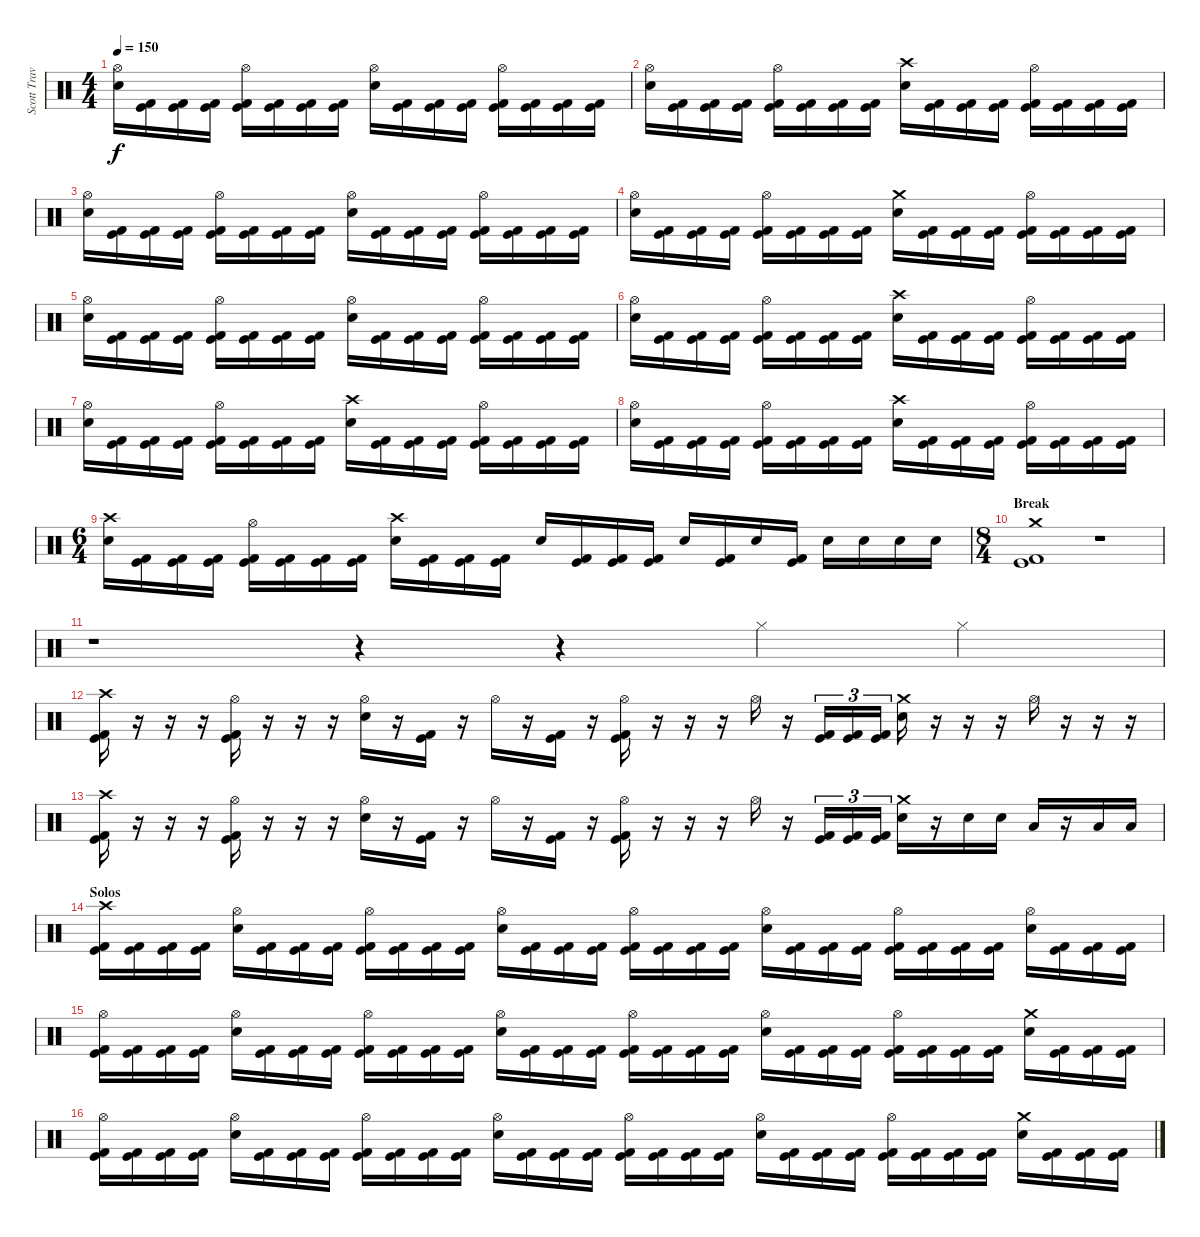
\track ("Scott Travis" "Scott Trav") {instrument percussion}
\staff {score}
\articulation defaults
\ts (4 4)
\tempo 150
\clef neutral
\ks c
("Hi-Hat (open)" "Electric Snare (hit)").16{dy f} ("Kick (hit)" "Kick (hit) 2").16 ("Kick (hit)" "Kick (hit) 2").16 ("Kick (hit)" "Kick (hit) 2").16 ("Hi-Hat (open)" "Kick (hit)" "Kick (hit) 2").16 ("Kick (hit)" "Kick (hit) 2").16 ("Kick (hit)" "Kick (hit) 2").16 ("Kick (hit)" "Kick (hit) 2").16 ("Hi-Hat (open)" "Electric Snare (hit)").16 ("Kick (hit)" "Kick (hit) 2").16 ("Kick (hit)" "Kick (hit) 2").16 ("Kick (hit)" "Kick (hit) 2").16 ("Hi-Hat (open)" "Kick (hit)" "Kick (hit) 2").16 ("Kick (hit)" "Kick (hit) 2").16 ("Kick (hit)" "Kick (hit) 2").16 ("Kick (hit)" "Kick (hit) 2").16 |
("Hi-Hat (open)" "Electric Snare (hit)").16 ("Kick (hit)" "Kick (hit) 2").16 ("Kick (hit)" "Kick (hit) 2").16 ("Kick (hit)" "Kick (hit) 2").16 ("Hi-Hat (open)" "Kick (hit)" "Kick (hit) 2").16 ("Kick (hit)" "Kick (hit) 2").16 ("Kick (hit)" "Kick (hit) 2").16 ("Kick (hit)" "Kick (hit) 2").16 ("Crash high (hit)" "Electric Snare (hit)").16 ("Kick (hit)" "Kick (hit) 2").16 ("Kick (hit)" "Kick (hit) 2").16 ("Kick (hit)" "Kick (hit) 2").16 ("Hi-Hat (open)" "Kick (hit)" "Kick (hit) 2").16 ("Kick (hit)" "Kick (hit) 2").16 ("Kick (hit)" "Kick (hit) 2").16 ("Kick (hit)" "Kick (hit) 2").16 |
("Hi-Hat (open)" "Electric Snare (hit)").16 ("Kick (hit)" "Kick (hit) 2").16 ("Kick (hit)" "Kick (hit) 2").16 ("Kick (hit)" "Kick (hit) 2").16 ("Hi-Hat (open)" "Kick (hit)" "Kick (hit) 2").16 ("Kick (hit)" "Kick (hit) 2").16 ("Kick (hit)" "Kick (hit) 2").16 ("Kick (hit)" "Kick (hit) 2").16 ("Hi-Hat (open)" "Electric Snare (hit)").16 ("Kick (hit)" "Kick (hit) 2").16 ("Kick (hit)" "Kick (hit) 2").16 ("Kick (hit)" "Kick (hit) 2").16 ("Hi-Hat (open)" "Kick (hit)" "Kick (hit) 2").16 ("Kick (hit)" "Kick (hit) 2").16 ("Kick (hit)" "Kick (hit) 2").16 ("Kick (hit)" "Kick (hit) 2").16 |
("Hi-Hat (open)" "Electric Snare (hit)").16 ("Kick (hit)" "Kick (hit) 2").16 ("Kick (hit)" "Kick (hit) 2").16 ("Kick (hit)" "Kick (hit) 2").16 ("Hi-Hat (open)" "Kick (hit)" "Kick (hit) 2").16 ("Kick (hit)" "Kick (hit) 2").16 ("Kick (hit)" "Kick (hit) 2").16 ("Kick (hit)" "Kick (hit) 2").16 ("Crash medium (hit)" "Electric Snare (hit)").16 ("Kick (hit)" "Kick (hit) 2").16 ("Kick (hit)" "Kick (hit) 2").16 ("Kick (hit)" "Kick (hit) 2").16 ("Hi-Hat (open)" "Kick (hit)" "Kick (hit) 2").16 ("Kick (hit)" "Kick (hit) 2").16 ("Kick (hit)" "Kick (hit) 2").16 ("Kick (hit)" "Kick (hit) 2").16 |
("Hi-Hat (open)" "Electric Snare (hit)").16 ("Kick (hit)" "Kick (hit) 2").16 ("Kick (hit)" "Kick (hit) 2").16 ("Kick (hit)" "Kick (hit) 2").16 ("Hi-Hat (open)" "Kick (hit)" "Kick (hit) 2").16 ("Kick (hit)" "Kick (hit) 2").16 ("Kick (hit)" "Kick (hit) 2").16 ("Kick (hit)" "Kick (hit) 2").16 ("Hi-Hat (open)" "Electric Snare (hit)").16 ("Kick (hit)" "Kick (hit) 2").16 ("Kick (hit)" "Kick (hit) 2").16 ("Kick (hit)" "Kick (hit) 2").16 ("Hi-Hat (open)" "Kick (hit)" "Kick (hit) 2").16 ("Kick (hit)" "Kick (hit) 2").16 ("Kick (hit)" "Kick (hit) 2").16 ("Kick (hit)" "Kick (hit) 2").16 |
("Hi-Hat (open)" "Electric Snare (hit)").16 ("Kick (hit)" "Kick (hit) 2").16 ("Kick (hit)" "Kick (hit) 2").16 ("Kick (hit)" "Kick (hit) 2").16 ("Hi-Hat (open)" "Kick (hit)" "Kick (hit) 2").16 ("Kick (hit)" "Kick (hit) 2").16 ("Kick (hit)" "Kick (hit) 2").16 ("Kick (hit)" "Kick (hit) 2").16 ("Crash high (hit)" "Electric Snare (hit)").16 ("Kick (hit)" "Kick (hit) 2").16 ("Kick (hit)" "Kick (hit) 2").16 ("Kick (hit)" "Kick (hit) 2").16 ("Hi-Hat (open)" "Kick (hit)" "Kick (hit) 2").16 ("Kick (hit)" "Kick (hit) 2").16 ("Kick (hit)" "Kick (hit) 2").16 ("Kick (hit)" "Kick (hit) 2").16 |
("Hi-Hat (open)" "Electric Snare (hit)").16 ("Kick (hit)" "Kick (hit) 2").16 ("Kick (hit)" "Kick (hit) 2").16 ("Kick (hit)" "Kick (hit) 2").16 ("Hi-Hat (open)" "Kick (hit)" "Kick (hit) 2").16 ("Kick (hit)" "Kick (hit) 2").16 ("Kick (hit)" "Kick (hit) 2").16 ("Kick (hit)" "Kick (hit) 2").16 ("Crash high (hit)" "Electric Snare (hit)").16 ("Kick (hit)" "Kick (hit) 2").16 ("Kick (hit)" "Kick (hit) 2").16 ("Kick (hit)" "Kick (hit) 2").16 ("Hi-Hat (open)" "Kick (hit)" "Kick (hit) 2").16 ("Kick (hit)" "Kick (hit) 2").16 ("Kick (hit)" "Kick (hit) 2").16 ("Kick (hit)" "Kick (hit) 2").16 |
("Hi-Hat (open)" "Electric Snare (hit)").16 ("Kick (hit)" "Kick (hit) 2").16 ("Kick (hit)" "Kick (hit) 2").16 ("Kick (hit)" "Kick (hit) 2").16 ("Hi-Hat (open)" "Kick (hit)" "Kick (hit) 2").16 ("Kick (hit)" "Kick (hit) 2").16 ("Kick (hit)" "Kick (hit) 2").16 ("Kick (hit)" "Kick (hit) 2").16 ("Crash high (hit)" "Electric Snare (hit)").16 ("Kick (hit)" "Kick (hit) 2").16 ("Kick (hit)" "Kick (hit) 2").16 ("Kick (hit)" "Kick (hit) 2").16 ("Hi-Hat (open)" "Kick (hit)" "Kick (hit) 2").16 ("Kick (hit)" "Kick (hit) 2").16 ("Kick (hit)" "Kick (hit) 2").16 ("Kick (hit)" "Kick (hit) 2").16 |
\ts (6 4)
("Crash high (hit)" "Electric Snare (hit)").16 ("Kick (hit)" "Kick (hit) 2").16 ("Kick (hit)" "Kick (hit) 2").16 ("Kick (hit)" "Kick (hit) 2").16 ("Hi-Hat (open)" "Kick (hit)" "Kick (hit) 2").16 ("Kick (hit)" "Kick (hit) 2").16 ("Kick (hit)" "Kick (hit) 2").16 ("Kick (hit)" "Kick (hit) 2").16 ("Crash high (hit)" "Electric Snare (hit)").16 ("Kick (hit)" "Kick (hit) 2").16 ("Kick (hit)" "Kick (hit) 2").16 ("Kick (hit)" "Kick (hit) 2").16 "Electric Snare (hit)".16 ("Kick (hit)" "Kick (hit) 2").16 ("Kick (hit)" "Kick (hit) 2").16 ("Kick (hit)" "Kick (hit) 2").16 "Electric Snare (hit)".16 ("Kick (hit)" "Kick (hit) 2").16 "Electric Snare (hit)".16 ("Kick (hit)" "Kick (hit) 2").16 "Electric Snare (hit)".16 "Electric Snare (hit)".16 "Electric Snare (hit)".16 "Electric Snare (hit)".16 |
\ts (8 4)
\section ("" "Break")
("Crash medium (hit)" "Kick (hit)" "Kick (hit) 2").1 r.1 |
r.1 r.4 r.4 "Hi-Hat (closed)".4 "Hi-Hat (closed)".4 |
("Crash high (hit)" "Kick (hit)" "Kick (hit) 2").16 r.16 r.16 r.16 ("Hi-Hat (open)" "Kick (hit)" "Kick (hit) 2").16 r.16 r.16 r.16 ("Hi-Hat (open)" "Electric Snare (hit)").16 r.16 ("Kick (hit)" "Kick (hit) 2").16 r.16 "Hi-Hat (open)".16 r.16 ("Kick (hit)" "Kick (hit) 2").16 r.16 ("Hi-Hat (open)" "Kick (hit)" "Kick (hit) 2").16 r.16 r.16 r.16 "Hi-Hat (open)".16 r.16 ("Kick (hit)" "Kick (hit) 2").16{tu (3 2)} ("Kick (hit)" "Kick (hit) 2").16{tu (3 2)} ("Kick (hit)" "Kick (hit) 2").16{tu (3 2)} ("Crash medium (hit)" "Electric Snare (hit)").16 r.16 r.16 r.16 "Hi-Hat (open)".16 r.16 r.16 r.16 |
("Crash high (hit)" "Kick (hit)" "Kick (hit) 2").16 r.16 r.16 r.16 ("Hi-Hat (open)" "Kick (hit)" "Kick (hit) 2").16 r.16 r.16 r.16 ("Hi-Hat (open)" "Electric Snare (hit)").16 r.16 ("Kick (hit)" "Kick (hit) 2").16 r.16 "Hi-Hat (open)".16 r.16 ("Kick (hit)" "Kick (hit) 2").16 r.16 ("Hi-Hat (open)" "Kick (hit)" "Kick (hit) 2").16 r.16 r.16 r.16 "Hi-Hat (open)".16 r.16 ("Kick (hit)" "Kick (hit) 2").16{tu (3 2)} ("Kick (hit)" "Kick (hit) 2").16{tu (3 2)} ("Kick (hit)" "Kick (hit) 2").16{tu (3 2)} ("Crash medium (hit)" "Electric Snare (hit)").16 r.16 "Electric Snare (hit)".16 "Electric Snare (hit)".16 "Low Tom (hit)".16 r.16 "Low Tom (hit)".16 "Low Tom (hit)".16 |
\section ("" "Solos")
("Crash high (hit)" "Kick (hit)" "Kick (hit) 2").16 ("Kick (hit)" "Kick (hit) 2").16 ("Kick (hit)" "Kick (hit) 2").16 ("Kick (hit)" "Kick (hit) 2").16 ("Hi-Hat (open)" "Electric Snare (hit)").16 ("Kick (hit)" "Kick (hit) 2").16 ("Kick (hit)" "Kick (hit) 2").16 ("Kick (hit)" "Kick (hit) 2").16 ("Hi-Hat (open)" "Kick (hit)" "Kick (hit) 2").16 ("Kick (hit)" "Kick (hit) 2").16 ("Kick (hit)" "Kick (hit) 2").16 ("Kick (hit)" "Kick (hit) 2").16 ("Hi-Hat (open)" "Electric Snare (hit)").16 ("Kick (hit)" "Kick (hit) 2").16 ("Kick (hit)" "Kick (hit) 2").16 ("Kick (hit)" "Kick (hit) 2").16 ("Hi-Hat (open)" "Kick (hit)" "Kick (hit) 2").16 ("Kick (hit)" "Kick (hit) 2").16 ("Kick (hit)" "Kick (hit) 2").16 ("Kick (hit)" "Kick (hit) 2").16 ("Hi-Hat (open)" "Electric Snare (hit)").16 ("Kick (hit)" "Kick (hit) 2").16 ("Kick (hit)" "Kick (hit) 2").16 ("Kick (hit)" "Kick (hit) 2").16 ("Hi-Hat (open)" "Kick (hit)" "Kick (hit) 2").16 ("Kick (hit)" "Kick (hit) 2").16 ("Kick (hit)" "Kick (hit) 2").16 ("Kick (hit)" "Kick (hit) 2").16 ("Hi-Hat (open)" "Electric Snare (hit)").16 ("Kick (hit)" "Kick (hit) 2").16 ("Kick (hit)" "Kick (hit) 2").16 ("Kick (hit)" "Kick (hit) 2").16 |
("Hi-Hat (open)" "Kick (hit)" "Kick (hit) 2").16 ("Kick (hit)" "Kick (hit) 2").16 ("Kick (hit)" "Kick (hit) 2").16 ("Kick (hit)" "Kick (hit) 2").16 ("Hi-Hat (open)" "Electric Snare (hit)").16 ("Kick (hit)" "Kick (hit) 2").16 ("Kick (hit)" "Kick (hit) 2").16 ("Kick (hit)" "Kick (hit) 2").16 ("Hi-Hat (open)" "Kick (hit)" "Kick (hit) 2").16 ("Kick (hit)" "Kick (hit) 2").16 ("Kick (hit)" "Kick (hit) 2").16 ("Kick (hit)" "Kick (hit) 2").16 ("Hi-Hat (open)" "Electric Snare (hit)").16 ("Kick (hit)" "Kick (hit) 2").16 ("Kick (hit)" "Kick (hit) 2").16 ("Kick (hit)" "Kick (hit) 2").16 ("Hi-Hat (open)" "Kick (hit)" "Kick (hit) 2").16 ("Kick (hit)" "Kick (hit) 2").16 ("Kick (hit)" "Kick (hit) 2").16 ("Kick (hit)" "Kick (hit) 2").16 ("Hi-Hat (open)" "Electric Snare (hit)").16 ("Kick (hit)" "Kick (hit) 2").16 ("Kick (hit)" "Kick (hit) 2").16 ("Kick (hit)" "Kick (hit) 2").16 ("Hi-Hat (open)" "Kick (hit)" "Kick (hit) 2").16 ("Kick (hit)" "Kick (hit) 2").16 ("Kick (hit)" "Kick (hit) 2").16 ("Kick (hit)" "Kick (hit) 2").16 ("Crash medium (hit)" "Electric Snare (hit)").16 ("Kick (hit)" "Kick (hit) 2").16 ("Kick (hit)" "Kick (hit) 2").16 ("Kick (hit)" "Kick (hit) 2").16 |
("Hi-Hat (open)" "Kick (hit)" "Kick (hit) 2").16 ("Kick (hit)" "Kick (hit) 2").16 ("Kick (hit)" "Kick (hit) 2").16 ("Kick (hit)" "Kick (hit) 2").16 ("Hi-Hat (open)" "Electric Snare (hit)").16 ("Kick (hit)" "Kick (hit) 2").16 ("Kick (hit)" "Kick (hit) 2").16 ("Kick (hit)" "Kick (hit) 2").16 ("Hi-Hat (open)" "Kick (hit)" "Kick (hit) 2").16 ("Kick (hit)" "Kick (hit) 2").16 ("Kick (hit)" "Kick (hit) 2").16 ("Kick (hit)" "Kick (hit) 2").16 ("Hi-Hat (open)" "Electric Snare (hit)").16 ("Kick (hit)" "Kick (hit) 2").16 ("Kick (hit)" "Kick (hit) 2").16 ("Kick (hit)" "Kick (hit) 2").16 ("Hi-Hat (open)" "Kick (hit)" "Kick (hit) 2").16 ("Kick (hit)" "Kick (hit) 2").16 ("Kick (hit)" "Kick (hit) 2").16 ("Kick (hit)" "Kick (hit) 2").16 ("Hi-Hat (open)" "Electric Snare (hit)").16 ("Kick (hit)" "Kick (hit) 2").16 ("Kick (hit)" "Kick (hit) 2").16 ("Kick (hit)" "Kick (hit) 2").16 ("Hi-Hat (open)" "Kick (hit)" "Kick (hit) 2").16 ("Kick (hit)" "Kick (hit) 2").16 ("Kick (hit)" "Kick (hit) 2").16 ("Kick (hit)" "Kick (hit) 2").16 ("Crash medium (hit)" "Electric Snare (hit)").16 ("Kick (hit)" "Kick (hit) 2").16 ("Kick (hit)" "Kick (hit) 2").16 ("Kick (hit)" "Kick (hit) 2").16
